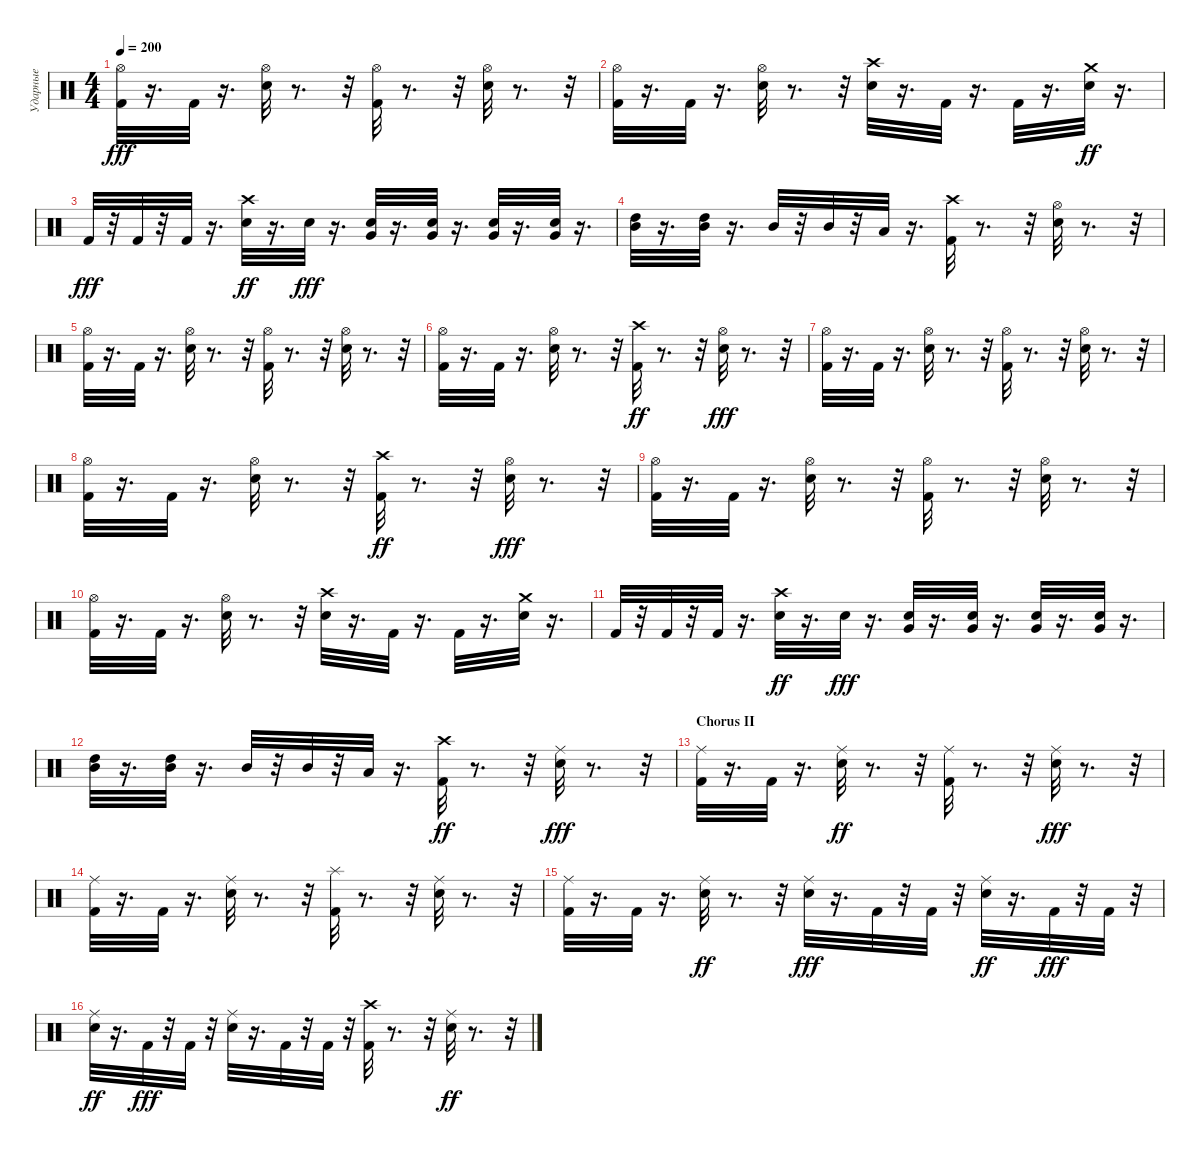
\track ("Ударные" "Ударные") {instrument percussion}
\staff {score}
\articulation defaults
\ts (4 4)
\tempo 200
\clef neutral
\ks c
("Kick (hit) 2" "Hi-Hat (open)").32{dy fff} r.16{d} "Kick (hit) 2".32 r.16{d} ("Hi-Hat (open)" "Snare (hit) 2").32 r.8{d} r.32 ("Hi-Hat (open)" "Kick (hit) 2").32 r.8{d} r.32 ("Hi-Hat (open)" "Snare (hit) 2").32 r.8{d} r.32 |
("Hi-Hat (open)" "Kick (hit) 2").32 r.16{d} "Kick (hit) 2".32 r.16{d} ("Snare (hit) 2" "Hi-Hat (open)").32 r.8{d} r.32 ("Crash high (hit)" "Snare (hit) 2").32 r.16{d} "Kick (hit) 2".32 r.16{d} "Kick (hit) 2".32 r.16{d} ("Snare (hit) 2" "Crash medium (hit)").32{dy ff} r.16{d} |
"Kick (hit) 2".32{dy fff} r.32 "Kick (hit) 2".32 r.32 "Kick (hit) 2".32 r.16{d} ("Snare (hit) 2" "Crash high (hit)").32{dy ff} r.16{d} "Snare (hit) 2".32{dy fff} r.16{d} ("Very Low Tom (hit)" "Snare (hit) 2").32 r.16{d} ("Snare (hit) 2" "Very Low Tom (hit)").32 r.16{d} ("Snare (hit) 2" "Very Low Tom (hit)").32 r.16{d} ("Very Low Tom (hit)" "Snare (hit) 2").32 r.16{d} |
("Mid Tom (hit)" "High Tom (hit)").32 r.16{d} ("Mid Tom (hit)" "High Tom (hit)").32 r.16{d} "Mid Tom (hit)".32 r.32 "Mid Tom (hit)".32 r.32 "Low Tom (hit)".32 r.16{d} ("Crash high (hit)" "Kick (hit) 2").32 r.8{d} r.32 ("Snare (hit) 2" "Hi-Hat (open)").32 r.8{d} r.32 |
("Hi-Hat (open)" "Kick (hit) 2").32 r.16{d} "Kick (hit) 2".32 r.16{d} ("Snare (hit) 2" "Hi-Hat (open)").32 r.8{d} r.32 ("Kick (hit) 2" "Hi-Hat (open)").32 r.8{d} r.32 ("Hi-Hat (open)" "Snare (hit) 2").32 r.8{d} r.32 |
("Hi-Hat (open)" "Kick (hit) 2").32 r.16{d} "Kick (hit) 2".32 r.16{d} ("Snare (hit) 2" "Hi-Hat (open)").32 r.8{d} r.32 ("Kick (hit) 2" "Crash high (hit)").32{dy ff} r.8{d} r.32 ("Snare (hit) 2" "Hi-Hat (open)").32{dy fff} r.8{d} r.32 |
("Hi-Hat (open)" "Kick (hit) 2").32 r.16{d} "Kick (hit) 2".32 r.16{d} ("Hi-Hat (open)" "Snare (hit) 2").32 r.8{d} r.32 ("Hi-Hat (open)" "Kick (hit) 2").32 r.8{d} r.32 ("Snare (hit) 2" "Hi-Hat (open)").32 r.8{d} r.32 |
("Kick (hit) 2" "Hi-Hat (open)").32 r.16{d} "Kick (hit) 2".32 r.16{d} ("Snare (hit) 2" "Hi-Hat (open)").32 r.8{d} r.32 ("Kick (hit) 2" "Crash high (hit)").32{dy ff} r.8{d} r.32 ("Snare (hit) 2" "Hi-Hat (open)").32{dy fff} r.8{d} r.32 |
("Kick (hit) 2" "Hi-Hat (open)").32 r.16{d} "Kick (hit) 2".32 r.16{d} ("Snare (hit) 2" "Hi-Hat (open)").32 r.8{d} r.32 ("Hi-Hat (open)" "Kick (hit) 2").32 r.8{d} r.32 ("Snare (hit) 2" "Hi-Hat (open)").32 r.8{d} r.32 |
("Hi-Hat (open)" "Kick (hit) 2").32 r.16{d} "Kick (hit) 2".32 r.16{d} ("Hi-Hat (open)" "Snare (hit) 2").32 r.8{d} r.32 ("Crash high (hit)" "Snare (hit) 2").32 r.16{d} "Kick (hit) 2".32 r.16{d} "Kick (hit) 2".32 r.16{d} ("Crash medium (hit)" "Snare (hit) 2").32 r.16{d} |
"Kick (hit) 2".32 r.32 "Kick (hit) 2".32 r.32 "Kick (hit) 2".32 r.16{d} ("Snare (hit) 2" "Crash high (hit)").32{dy ff} r.16{d} "Snare (hit) 2".32{dy fff} r.16{d} ("Snare (hit) 2" "Very Low Tom (hit)").32 r.16{d} ("Snare (hit) 2" "Very Low Tom (hit)").32 r.16{d} ("Very Low Tom (hit)" "Snare (hit) 2").32 r.16{d} ("Very Low Tom (hit)" "Snare (hit) 2").32 r.16{d} |
("High Tom (hit)" "Mid Tom (hit)").32 r.16{d} ("High Tom (hit)" "Mid Tom (hit)").32 r.16{d} "Mid Tom (hit)".32 r.32 "Mid Tom (hit)".32 r.32 "Low Tom (hit)".32 r.16{d} ("Kick (hit) 2" "Crash high (hit)").32{dy ff} r.8{d} r.32 ("Ride (middle)" "Snare (hit) 2").32{dy fff} r.8{d} r.32 |
\section ("" "Chorus II")
("Ride (middle)" "Kick (hit) 2").32 r.16{d} "Kick (hit) 2".32 r.16{d} ("Snare (hit) 2" "Ride (middle)").32{dy ff} r.8{d} r.32 ("Kick (hit) 2" "Ride (middle)").32 r.8{d} r.32 ("Ride (middle)" "Snare (hit) 2").32{dy fff} r.8{d} r.32 |
("Ride (middle)" "Kick (hit) 2").32 r.16{d} "Kick (hit) 2".32 r.16{d} ("Ride (middle)" "Snare (hit) 2").32 r.8{d} r.32 ("Splash (hit)" "Kick (hit) 2").32 r.8{d} r.32 ("Ride (middle)" "Snare (hit) 2").32 r.8{d} r.32 |
("Ride (middle)" "Kick (hit) 2").32 r.16{d} "Kick (hit) 2".32 r.16{d} ("Snare (hit) 2" "Ride (middle)").32{dy ff} r.8{d} r.32 ("Ride (middle)" "Snare (hit) 2").32{dy fff} r.16{d} "Kick (hit) 2".32 r.32 "Kick (hit) 2".32 r.32 ("Snare (hit) 2" "Ride (middle)").32{dy ff} r.16{d} "Kick (hit) 2".32{dy fff} r.32 "Kick (hit) 2".32 r.32 |
("Snare (hit) 2" "Ride (middle)").32{dy ff} r.16{d} "Kick (hit) 2".32{dy fff} r.32 "Kick (hit) 2".32 r.32 ("Ride (middle)" "Snare (hit) 2").32 r.16{d} "Kick (hit) 2".32 r.32 "Kick (hit) 2".32 r.32 ("Crash high (hit)" "Kick (hit) 2").32 r.8{d} r.32 ("Snare (hit) 2" "Ride (middle)").32{dy ff} r.8{d} r.32
